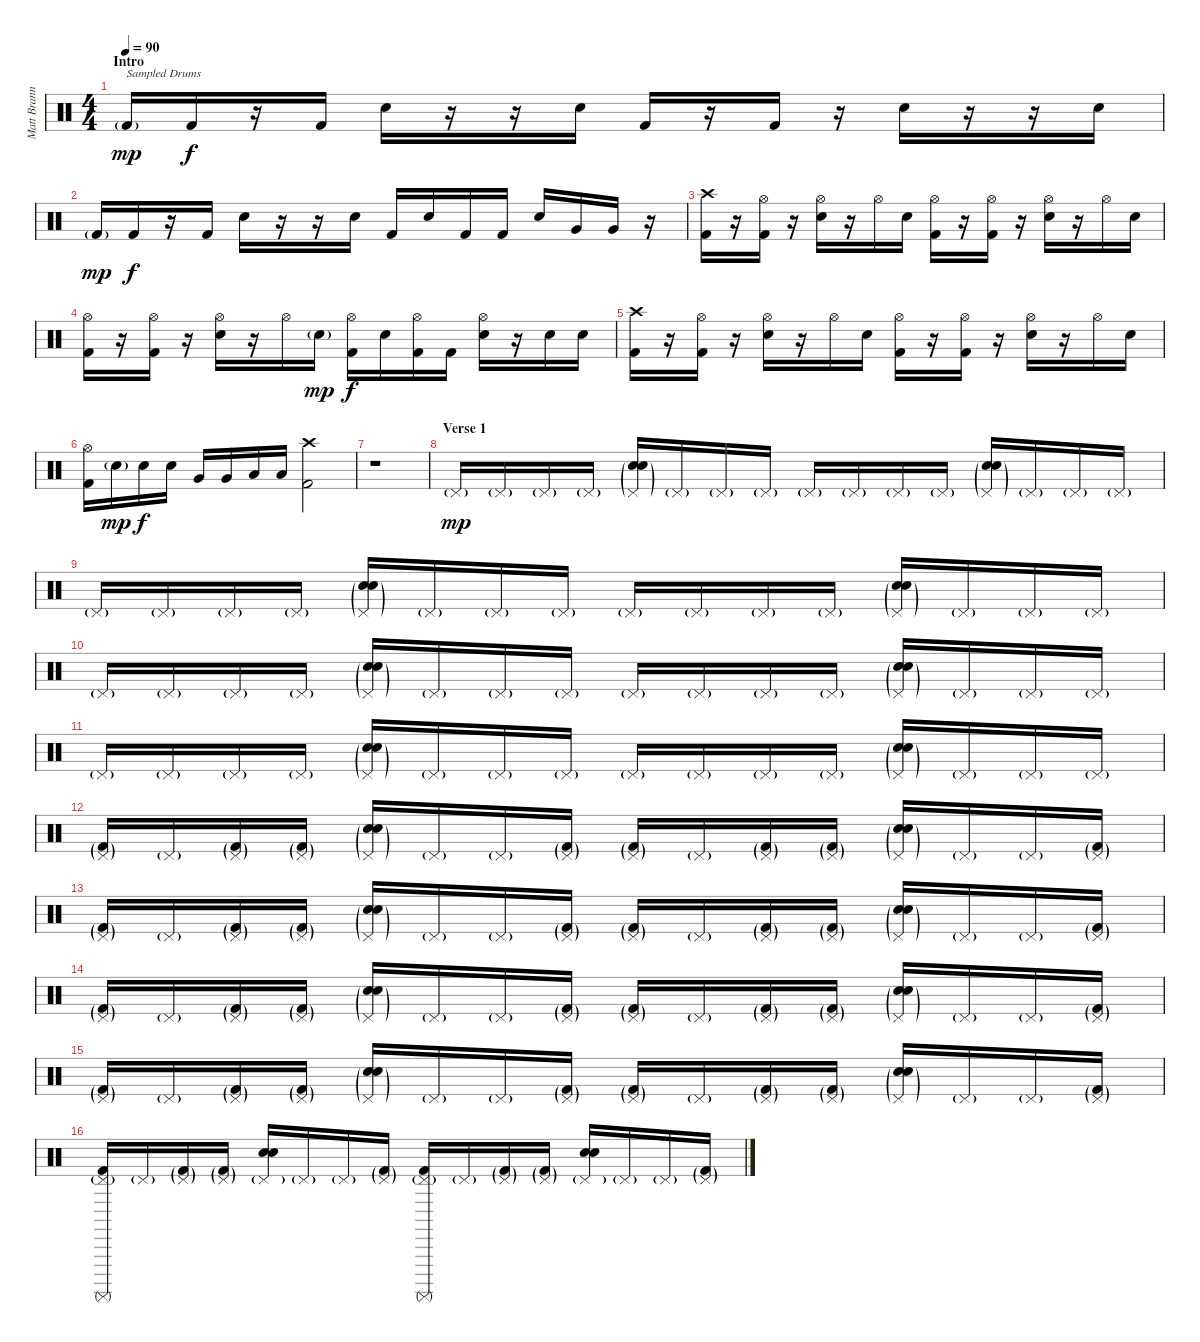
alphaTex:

\track ("Matt Brann - Drums" "Matt Brann") {instrument percussion}
\staff {score}
\articulation defaults
\ts (4 4)
\section ("" "Intro")
\tempo 90
\clef neutral
\ks c "Kick (hit) 2"{g}.16{txt "Sampled Drums" dy mp volume 8} "Kick (hit) 2".16{dy f}
r.16 "Kick (hit) 2".16 "Electric Snare (hit)".16 r.16 r.16 "Electric Snare (hit)".16 "Kick (hit) 2".16 r.16 "Kick (hit) 2".16 r.16 "Electric Snare (hit)".16 r.16 r.16 "Electric Snare (hit)".16 |
"Kick (hit) 2"{g}.16{dy mp} "Kick (hit) 2".16{dy f} r.16 "Kick (hit) 2".16 "Electric Snare (hit)".16 r.16 r.16 "Electric Snare (hit)".16 "Kick (hit) 2".16{volume 15} "Snare (hit) 2".16 "Kick (hit) 2".16 "Kick (hit) 2".16 "Snare (hit) 2".16 "Very Low Tom (hit)".16 "Very Low Tom (hit)".16 r.16 |
("Crash high (hit)" "Kick (hit) 2").16 r.16 ("Hi-Hat (open)" "Kick (hit) 2").16 r.16 ("Hi-Hat (open)" "Snare (hit) 2").16 r.16 "Hi-Hat (open)".16 "Snare (hit) 2".16 ("Hi-Hat (open)" "Kick (hit) 2").16 r.16 ("Hi-Hat (open)" "Kick (hit) 2").16 r.16 ("Hi-Hat (open)" "Snare (hit) 2").16 r.16 "Hi-Hat (open)".16 "Snare (hit) 2".16 |
("Hi-Hat (open)" "Kick (hit) 2").16 r.16 ("Hi-Hat (open)" "Kick (hit) 2").16 r.16 ("Hi-Hat (open)" "Snare (hit) 2").16 r.16 "Hi-Hat (open)".16 "Snare (hit) 2"{g}.16{dy mp} ("Hi-Hat (open)" "Kick (hit) 2").16{dy f} "Snare (hit) 2".16 ("Hi-Hat (open)" "Kick (hit) 2").16 "Kick (hit) 2".16 ("Hi-Hat (open)" "Snare (hit) 2").16 r.16 "Snare (hit) 2".16 "Snare (hit) 2".16 |
("Crash high (hit)" "Kick (hit) 2").16 r.16 ("Hi-Hat (open)" "Kick (hit) 2").16 r.16 ("Hi-Hat (open)" "Snare (hit) 2").16 r.16 "Hi-Hat (open)".16 "Snare (hit) 2".16 ("Hi-Hat (open)" "Kick (hit) 2").16 r.16 ("Hi-Hat (open)" "Kick (hit) 2").16 r.16 ("Hi-Hat (open)" "Snare (hit) 2").16 r.16 "Hi-Hat (open)".16 "Snare (hit) 2".16 |
("Hi-Hat (open)" "Kick (hit) 2").16 "Snare (hit) 2"{g}.16{dy mp} "Snare (hit) 2".16{dy f} "Snare (hit) 2".16 "Very Low Tom (hit)".16 "Very Low Tom (hit)".16 "Low Floor Tom (hit)".16 "Low Floor Tom (hit)".16 ("Crash high (hit)" "Kick (hit) 2").2 |
r.1 |
\section ("" "Verse 1")
"Pedal Hi-Hat (hit)"{g}.16{dy mp volume 10} "Pedal Hi-Hat (hit)"{g}.16 "Pedal Hi-Hat (hit)"{g}.16 "Pedal Hi-Hat (hit)"{g}.16 ("Pedal Hi-Hat (hit)"{g} "Electric Snare (hit)"{g} "Hand Clap (hit)"{g}).16 "Pedal Hi-Hat (hit)"{g}.16 "Pedal Hi-Hat (hit)"{g}.16 "Pedal Hi-Hat (hit)"{g}.16 "Pedal Hi-Hat (hit)"{g}.16 "Pedal Hi-Hat (hit)"{g}.16 "Pedal Hi-Hat (hit)"{g}.16 "Pedal Hi-Hat (hit)"{g}.16 ("Pedal Hi-Hat (hit)"{g} "Electric Snare (hit)"{g} "Hand Clap (hit)"{g}).16 "Pedal Hi-Hat (hit)"{g}.16 "Pedal Hi-Hat (hit)"{g}.16 "Pedal Hi-Hat (hit)"{g}.16 |
"Pedal Hi-Hat (hit)"{g}.16 "Pedal Hi-Hat (hit)"{g}.16 "Pedal Hi-Hat (hit)"{g}.16 "Pedal Hi-Hat (hit)"{g}.16 ("Pedal Hi-Hat (hit)"{g} "Electric Snare (hit)"{g} "Hand Clap (hit)"{g}).16 "Pedal Hi-Hat (hit)"{g}.16 "Pedal Hi-Hat (hit)"{g}.16 "Pedal Hi-Hat (hit)"{g}.16 "Pedal Hi-Hat (hit)"{g}.16 "Pedal Hi-Hat (hit)"{g}.16 "Pedal Hi-Hat (hit)"{g}.16 "Pedal Hi-Hat (hit)"{g}.16 ("Pedal Hi-Hat (hit)"{g} "Electric Snare (hit)"{g} "Hand Clap (hit)"{g}).16 "Pedal Hi-Hat (hit)"{g}.16 "Pedal Hi-Hat (hit)"{g}.16 "Pedal Hi-Hat (hit)"{g}.16 |
"Pedal Hi-Hat (hit)"{g}.16 "Pedal Hi-Hat (hit)"{g}.16 "Pedal Hi-Hat (hit)"{g}.16 "Pedal Hi-Hat (hit)"{g}.16 ("Pedal Hi-Hat (hit)"{g} "Electric Snare (hit)"{g} "Hand Clap (hit)"{g}).16 "Pedal Hi-Hat (hit)"{g}.16 "Pedal Hi-Hat (hit)"{g}.16 "Pedal Hi-Hat (hit)"{g}.16 "Pedal Hi-Hat (hit)"{g}.16 "Pedal Hi-Hat (hit)"{g}.16 "Pedal Hi-Hat (hit)"{g}.16 "Pedal Hi-Hat (hit)"{g}.16 ("Pedal Hi-Hat (hit)"{g} "Electric Snare (hit)"{g} "Hand Clap (hit)"{g}).16 "Pedal Hi-Hat (hit)"{g}.16 "Pedal Hi-Hat (hit)"{g}.16 "Pedal Hi-Hat (hit)"{g}.16 |
"Pedal Hi-Hat (hit)"{g}.16 "Pedal Hi-Hat (hit)"{g}.16 "Pedal Hi-Hat (hit)"{g}.16 "Pedal Hi-Hat (hit)"{g}.16 ("Pedal Hi-Hat (hit)"{g} "Electric Snare (hit)"{g} "Hand Clap (hit)"{g}).16 "Pedal Hi-Hat (hit)"{g}.16 "Pedal Hi-Hat (hit)"{g}.16 "Pedal Hi-Hat (hit)"{g}.16 "Pedal Hi-Hat (hit)"{g}.16 "Pedal Hi-Hat (hit)"{g}.16 "Pedal Hi-Hat (hit)"{g}.16 "Pedal Hi-Hat (hit)"{g}.16 ("Pedal Hi-Hat (hit)"{g} "Electric Snare (hit)"{g} "Hand Clap (hit)"{g}).16 "Pedal Hi-Hat (hit)"{g}.16 "Pedal Hi-Hat (hit)"{g}.16 "Pedal Hi-Hat (hit)"{g}.16 |
("Pedal Hi-Hat (hit)"{g} "Kick (hit) 2"{g}).16 "Pedal Hi-Hat (hit)"{g}.16 ("Pedal Hi-Hat (hit)"{g} "Kick (hit) 2"{g}).16 ("Pedal Hi-Hat (hit)"{g} "Kick (hit) 2"{g}).16 ("Pedal Hi-Hat (hit)"{g} "Electric Snare (hit)"{g} "Hand Clap (hit)"{g}).16 "Pedal Hi-Hat (hit)"{g}.16 "Pedal Hi-Hat (hit)"{g}.16 ("Pedal Hi-Hat (hit)"{g} "Kick (hit) 2"{g}).16 ("Pedal Hi-Hat (hit)"{g} "Kick (hit) 2"{g}).16 "Pedal Hi-Hat (hit)"{g}.16 ("Pedal Hi-Hat (hit)"{g} "Kick (hit) 2"{g}).16 ("Pedal Hi-Hat (hit)"{g} "Kick (hit) 2"{g}).16 ("Pedal Hi-Hat (hit)"{g} "Electric Snare (hit)"{g} "Hand Clap (hit)"{g}).16 "Pedal Hi-Hat (hit)"{g}.16 "Pedal Hi-Hat (hit)"{g}.16 ("Pedal Hi-Hat (hit)"{g} "Kick (hit) 2"{g}).16 |
("Pedal Hi-Hat (hit)"{g} "Kick (hit) 2"{g}).16 "Pedal Hi-Hat (hit)"{g}.16 ("Pedal Hi-Hat (hit)"{g} "Kick (hit) 2"{g}).16 ("Pedal Hi-Hat (hit)"{g} "Kick (hit) 2"{g}).16 ("Pedal Hi-Hat (hit)"{g} "Electric Snare (hit)"{g} "Hand Clap (hit)"{g}).16 "Pedal Hi-Hat (hit)"{g}.16 "Pedal Hi-Hat (hit)"{g}.16 ("Pedal Hi-Hat (hit)"{g} "Kick (hit) 2"{g}).16 ("Pedal Hi-Hat (hit)"{g} "Kick (hit) 2"{g}).16 "Pedal Hi-Hat (hit)"{g}.16 ("Pedal Hi-Hat (hit)"{g} "Kick (hit) 2"{g}).16 ("Pedal Hi-Hat (hit)"{g} "Kick (hit) 2"{g}).16 ("Pedal Hi-Hat (hit)"{g} "Electric Snare (hit)"{g} "Hand Clap (hit)"{g}).16 "Pedal Hi-Hat (hit)"{g}.16 "Pedal Hi-Hat (hit)"{g}.16 ("Pedal Hi-Hat (hit)"{g} "Kick (hit) 2"{g}).16 |
("Pedal Hi-Hat (hit)"{g} "Kick (hit) 2"{g}).16 "Pedal Hi-Hat (hit)"{g}.16 ("Pedal Hi-Hat (hit)"{g} "Kick (hit) 2"{g}).16 ("Pedal Hi-Hat (hit)"{g} "Kick (hit) 2"{g}).16 ("Pedal Hi-Hat (hit)"{g} "Electric Snare (hit)"{g} "Hand Clap (hit)"{g}).16 "Pedal Hi-Hat (hit)"{g}.16 "Pedal Hi-Hat (hit)"{g}.16 ("Pedal Hi-Hat (hit)"{g} "Kick (hit) 2"{g}).16 ("Pedal Hi-Hat (hit)"{g} "Kick (hit) 2"{g}).16 "Pedal Hi-Hat (hit)"{g}.16 ("Pedal Hi-Hat (hit)"{g} "Kick (hit) 2"{g}).16 ("Pedal Hi-Hat (hit)"{g} "Kick (hit) 2"{g}).16 ("Pedal Hi-Hat (hit)"{g} "Electric Snare (hit)"{g} "Hand Clap (hit)"{g}).16 "Pedal Hi-Hat (hit)"{g}.16 "Pedal Hi-Hat (hit)"{g}.16 ("Pedal Hi-Hat (hit)"{g} "Kick (hit) 2"{g}).16 |
("Pedal Hi-Hat (hit)"{g} "Kick (hit) 2"{g}).16 "Pedal Hi-Hat (hit)"{g}.16 ("Pedal Hi-Hat (hit)"{g} "Kick (hit) 2"{g}).16 ("Pedal Hi-Hat (hit)"{g} "Kick (hit) 2"{g}).16 ("Pedal Hi-Hat (hit)"{g} "Electric Snare (hit)"{g} "Hand Clap (hit)"{g}).16 "Pedal Hi-Hat (hit)"{g}.16 "Pedal Hi-Hat (hit)"{g}.16 ("Pedal Hi-Hat (hit)"{g} "Kick (hit) 2"{g}).16 ("Pedal Hi-Hat (hit)"{g} "Kick (hit) 2"{g}).16 "Pedal Hi-Hat (hit)"{g}.16 ("Pedal Hi-Hat (hit)"{g} "Kick (hit) 2"{g}).16 ("Pedal Hi-Hat (hit)"{g} "Kick (hit) 2"{g}).16 ("Pedal Hi-Hat (hit)"{g} "Electric Snare (hit)"{g} "Hand Clap (hit)"{g}).16 "Pedal Hi-Hat (hit)"{g}.16 "Pedal Hi-Hat (hit)"{g}.16 ("Pedal Hi-Hat (hit)"{g} "Kick (hit) 2"{g}).16 |
("Pedal Hi-Hat (hit)"{g} "Surdo (mute)" "Kick (hit) 2").16 "Pedal Hi-Hat (hit)"{g}.16 ("Pedal Hi-Hat (hit)"{g} "Kick (hit) 2"{g}).16 ("Pedal Hi-Hat (hit)"{g} "Kick (hit) 2"{g}).16 ("Pedal Hi-Hat (hit)"{g} "Electric Snare (hit)" "Hand Clap (hit)").16 "Pedal Hi-Hat (hit)"{g}.16 "Pedal Hi-Hat (hit)"{g}.16 ("Pedal Hi-Hat (hit)"{g} "Kick (hit) 2"{g}).16 ("Pedal Hi-Hat (hit)"{g} "Surdo (mute)" "Kick (hit) 2").16 "Pedal Hi-Hat (hit)"{g}.16 ("Pedal Hi-Hat (hit)"{g} "Kick (hit) 2"{g}).16 ("Pedal Hi-Hat (hit)"{g} "Kick (hit) 2"{g}).16 ("Pedal Hi-Hat (hit)"{g} "Electric Snare (hit)" "Hand Clap (hit)").16 "Pedal Hi-Hat (hit)"{g}.16 "Pedal Hi-Hat (hit)"{g}.16 ("Pedal Hi-Hat (hit)"{g} "Kick (hit) 2"{g}).16
